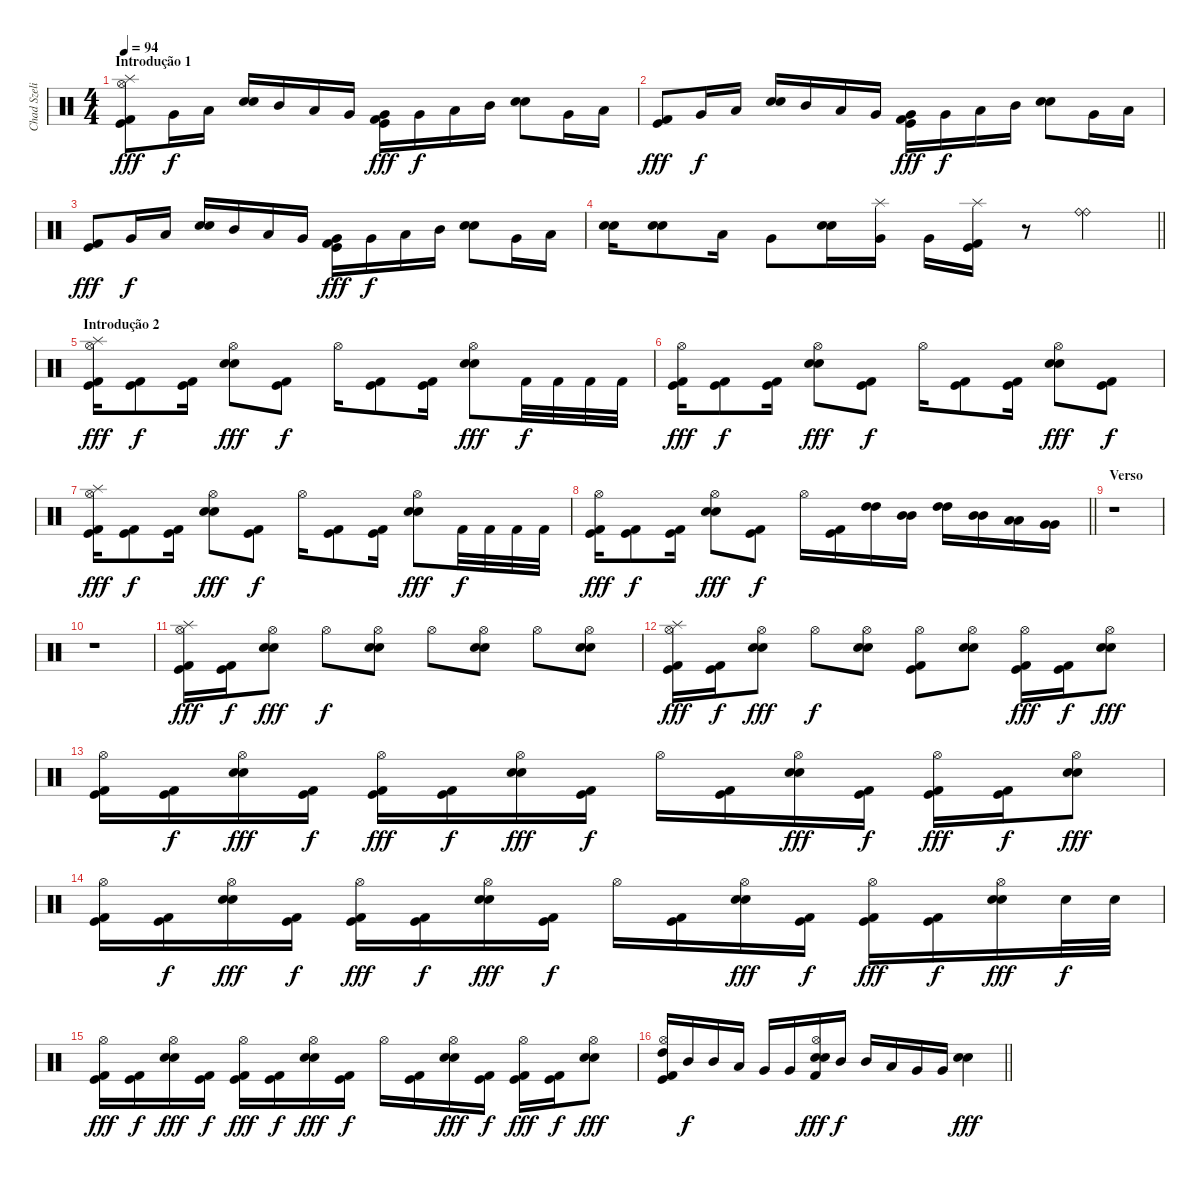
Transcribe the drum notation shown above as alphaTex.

\track ("Chad Szeliga" "Chad Szeli") {instrument percussion}
\staff {score}
\articulation defaults
\ts (4 4)
\section ("" "Introdução 1")
\tempo 94
\clef neutral
\ks c
("Splash (hit)" "Kick (hit) 2" "Kick (hit)" "Hi-Hat (open)").8{dy fff} "Very Low Tom (hit)".16{dy f} "Low Tom (hit)".16 ("Snare (hit) 2" "Snare (hit) 2").16 "Mid Tom (hit)".16 "Low Tom (hit)".16 "Very Low Tom (hit)".16 ("Kick (hit) 2" "Kick (hit)" "Very Low Tom (hit)").16{dy fff beam Down} "Very Low Tom (hit)".16{dy f beam Down} "Low Tom (hit)".16{beam Down} "Mid Tom (hit)".16{beam Down} ("Snare (hit) 2" "Snare (hit) 2").8{beam Down} "Very Low Tom (hit)".16{beam Down} "Low Tom (hit)".16{beam Down} |
("Kick (hit) 2" "Kick (hit)").8{dy fff} "Very Low Tom (hit)".16{dy f} "Low Tom (hit)".16 ("Snare (hit) 2" "Snare (hit) 2").16 "Mid Tom (hit)".16 "Low Tom (hit)".16 "Very Low Tom (hit)".16 ("Kick (hit) 2" "Kick (hit)" "Very Low Tom (hit)").16{dy fff beam Down} "Very Low Tom (hit)".16{dy f beam Down} "Low Tom (hit)".16{beam Down} "Mid Tom (hit)".16{beam Down} ("Snare (hit) 2" "Snare (hit) 2").8{beam Down} "Very Low Tom (hit)".16{beam Down} "Low Tom (hit)".16{beam Down} |
("Kick (hit) 2" "Kick (hit)").8{dy fff} "Very Low Tom (hit)".16{dy f} "Low Tom (hit)".16 ("Snare (hit) 2" "Snare (hit) 2").16 "Mid Tom (hit)".16 "Low Tom (hit)".16 "Very Low Tom (hit)".16 ("Kick (hit) 2" "Kick (hit)" "Very Low Tom (hit)").16{dy fff beam Down} "Very Low Tom (hit)".16{dy f beam Down} "Low Tom (hit)".16{beam Down} "Mid Tom (hit)".16{beam Down} ("Snare (hit) 2" "Snare (hit) 2").8{beam Down} "Very Low Tom (hit)".16{beam Down} "Low Tom (hit)".16{beam Down} |
\barLineRight lightlight
("Snare (hit) 2" "Snare (hit) 2").16 ("Snare (hit) 2" "Snare (hit) 2").8 "Low Tom (hit)".16 "Very Low Tom (hit)".8 ("Snare (hit) 2" "Snare (hit) 2").16 ("Splash (hit)" "Very Low Tom (hit)").16 "Very Low Tom (hit)".16 ("Splash (hit)" "Kick (hit) 2" "Kick (hit)").16 r.8 ("Ride (bell)" "Ride (bell)").4 |
\section ("" "Introdução 2")
("Splash (hit)" "Kick (hit) 2" "Kick (hit)" "Hi-Hat (open)").16{dy fff} ("Kick (hit) 2" "Kick (hit)").8{dy f} ("Kick (hit) 2" "Kick (hit)").16 ("Snare (hit) 2" "Snare (hit) 2" "Hi-Hat (open)").8{dy fff} ("Kick (hit) 2" "Kick (hit)").8{dy f} "Hi-Hat (open)".16 ("Kick (hit) 2" "Kick (hit)").8 ("Kick (hit) 2" "Kick (hit)").16 ("Snare (hit) 2" "Snare (hit) 2" "Hi-Hat (open)").8{dy fff} "Kick (hit) 2".32{dy f} "Kick (hit) 2".32 "Kick (hit) 2".32 "Kick (hit) 2".32 |
("Kick (hit) 2" "Kick (hit)" "Hi-Hat (open)").16{dy fff} ("Kick (hit) 2" "Kick (hit)").8{dy f} ("Kick (hit) 2" "Kick (hit)").16 ("Snare (hit) 2" "Snare (hit) 2" "Hi-Hat (open)").8{dy fff} ("Kick (hit) 2" "Kick (hit)").8{dy f} "Hi-Hat (open)".16 ("Kick (hit) 2" "Kick (hit)").8 ("Kick (hit) 2" "Kick (hit)").16 ("Snare (hit) 2" "Snare (hit) 2" "Hi-Hat (open)").8{dy fff} ("Kick (hit) 2" "Kick (hit)").8{dy f} |
("Splash (hit)" "Kick (hit) 2" "Kick (hit)" "Hi-Hat (open)").16{dy fff} ("Kick (hit) 2" "Kick (hit)").8{dy f} ("Kick (hit) 2" "Kick (hit)").16 ("Snare (hit) 2" "Snare (hit) 2" "Hi-Hat (open)").8{dy fff} ("Kick (hit) 2" "Kick (hit)").8{dy f} "Hi-Hat (open)".16 ("Kick (hit) 2" "Kick (hit)").8 ("Kick (hit) 2" "Kick (hit)").16 ("Snare (hit) 2" "Snare (hit) 2" "Hi-Hat (open)").8{dy fff} "Kick (hit) 2".32{dy f} "Kick (hit) 2".32 "Kick (hit) 2".32 "Kick (hit) 2".32 |
\barLineRight lightlight
("Kick (hit) 2" "Kick (hit)" "Hi-Hat (open)").16{dy fff} ("Kick (hit) 2" "Kick (hit)").8{dy f} ("Kick (hit) 2" "Kick (hit)").16 ("Snare (hit) 2" "Snare (hit) 2" "Hi-Hat (open)").8{dy fff} ("Kick (hit) 2" "Kick (hit)").8{dy f} "Hi-Hat (open)".16 ("Kick (hit) 2" "Kick (hit)").16 ("High Tom (hit)" "High Tom (hit)").16 ("Mid Tom (hit)" "Mid Tom (hit)").16 ("High Tom (hit)" "High Tom (hit)").16 ("Mid Tom (hit)" "Mid Tom (hit)").16 ("Low Tom (hit)" "Low Tom (hit)").16 ("Very Low Tom (hit)" "Very Low Tom (hit)").16 |
\section ("" "Verso")
r.1 |
r.1 |
("Splash (hit)" "Kick (hit) 2" "Kick (hit)" "Hi-Hat (open)").16{dy fff} ("Kick (hit) 2" "Kick (hit)").16{dy f} ("Snare (hit) 2" "Snare (hit) 2" "Hi-Hat (open)").8{dy fff} "Hi-Hat (open)".8{dy f} ("Snare (hit) 2" "Snare (hit) 2" "Hi-Hat (open)").8 "Hi-Hat (open)".8 ("Snare (hit) 2" "Snare (hit) 2" "Hi-Hat (open)").8 "Hi-Hat (open)".8 ("Snare (hit) 2" "Snare (hit) 2" "Hi-Hat (open)").8 |
("Splash (hit)" "Kick (hit) 2" "Kick (hit)" "Hi-Hat (open)").16{dy fff} ("Kick (hit) 2" "Kick (hit)").16{dy f} ("Snare (hit) 2" "Snare (hit) 2" "Hi-Hat (open)").8{dy fff} "Hi-Hat (open)".8{dy f} ("Snare (hit) 2" "Snare (hit) 2" "Hi-Hat (open)").8 ("Kick (hit) 2" "Kick (hit)" "Hi-Hat (open)").8 ("Snare (hit) 2" "Snare (hit) 2" "Hi-Hat (open)").8 ("Kick (hit) 2" "Kick (hit)" "Hi-Hat (open)").16{dy fff} ("Kick (hit) 2" "Kick (hit)").16{dy f} ("Snare (hit) 2" "Snare (hit) 2" "Hi-Hat (open)").8{dy fff} |
("Kick (hit) 2" "Kick (hit)" "Hi-Hat (open)").16 ("Kick (hit) 2" "Kick (hit)").16{dy f} ("Snare (hit) 2" "Snare (hit) 2" "Hi-Hat (open)").16{dy fff} ("Kick (hit) 2" "Kick (hit)").16{dy f} ("Kick (hit) 2" "Kick (hit)" "Hi-Hat (open)").16{dy fff} ("Kick (hit) 2" "Kick (hit)").16{dy f} ("Snare (hit) 2" "Snare (hit) 2" "Hi-Hat (open)").16{dy fff} ("Kick (hit) 2" "Kick (hit)").16{dy f} "Hi-Hat (open)".16 ("Kick (hit) 2" "Kick (hit)").16 ("Snare (hit) 2" "Snare (hit) 2" "Hi-Hat (open)").16{dy fff} ("Kick (hit) 2" "Kick (hit)").16{dy f} ("Kick (hit) 2" "Kick (hit)" "Hi-Hat (open)").16{dy fff} ("Kick (hit) 2" "Kick (hit)").16{dy f} ("Snare (hit) 2" "Snare (hit) 2" "Hi-Hat (open)").8{dy fff} |
("Kick (hit) 2" "Kick (hit)" "Hi-Hat (open)").16 ("Kick (hit) 2" "Kick (hit)").16{dy f} ("Snare (hit) 2" "Snare (hit) 2" "Hi-Hat (open)").16{dy fff} ("Kick (hit) 2" "Kick (hit)").16{dy f} ("Kick (hit) 2" "Kick (hit)" "Hi-Hat (open)").16{dy fff} ("Kick (hit) 2" "Kick (hit)").16{dy f} ("Snare (hit) 2" "Snare (hit) 2" "Hi-Hat (open)").16{dy fff} ("Kick (hit) 2" "Kick (hit)").16{dy f} "Hi-Hat (open)".16 ("Kick (hit) 2" "Kick (hit)").16 ("Snare (hit) 2" "Snare (hit) 2" "Hi-Hat (open)").16{dy fff} ("Kick (hit) 2" "Kick (hit)").16{dy f} ("Kick (hit) 2" "Kick (hit)" "Hi-Hat (open)").16{dy fff} ("Kick (hit) 2" "Kick (hit)").16{dy f} ("Snare (hit) 2" "Snare (hit) 2" "Hi-Hat (open)").16{dy fff} "Snare (hit) 2".32{dy f} "Snare (hit) 2".32 |
("Kick (hit) 2" "Kick (hit)" "Hi-Hat (open)").16{dy fff} ("Kick (hit) 2" "Kick (hit)").16{dy f} ("Snare (hit) 2" "Snare (hit) 2" "Hi-Hat (open)").16{dy fff} ("Kick (hit) 2" "Kick (hit)").16{dy f} ("Kick (hit) 2" "Kick (hit)" "Hi-Hat (open)").16{dy fff} ("Kick (hit) 2" "Kick (hit)").16{dy f} ("Snare (hit) 2" "Snare (hit) 2" "Hi-Hat (open)").16{dy fff} ("Kick (hit) 2" "Kick (hit)").16{dy f} "Hi-Hat (open)".16 ("Kick (hit) 2" "Kick (hit)").16 ("Snare (hit) 2" "Snare (hit) 2" "Hi-Hat (open)").16{dy fff} ("Kick (hit) 2" "Kick (hit)").16{dy f} ("Kick (hit) 2" "Kick (hit)" "Hi-Hat (open)").16{dy fff} ("Kick (hit) 2" "Kick (hit)").16{dy f} ("Snare (hit) 2" "Snare (hit) 2" "Hi-Hat (open)").8{dy fff} |
\barLineRight lightlight
("Kick (hit) 2" "Kick (hit)" "High Tom (hit)" "Hi-Hat (open)").16 "Mid Tom (hit)".16{dy f} "Mid Tom (hit)".16 "Low Tom (hit)".16 "Very Low Tom (hit)".16 "Very Low Tom (hit)".16 ("Kick (hit) 2" "Snare (hit) 2" "Snare (hit) 2" "Hi-Hat (open)").16{dy fff} "Mid Tom (hit)".16{dy f} "Mid Tom (hit)".16 "Low Tom (hit)".16 "Very Low Tom (hit)".16 "Very Low Tom (hit)".16 ("Snare (hit) 2" "Snare (hit) 2").4{dy fff}
